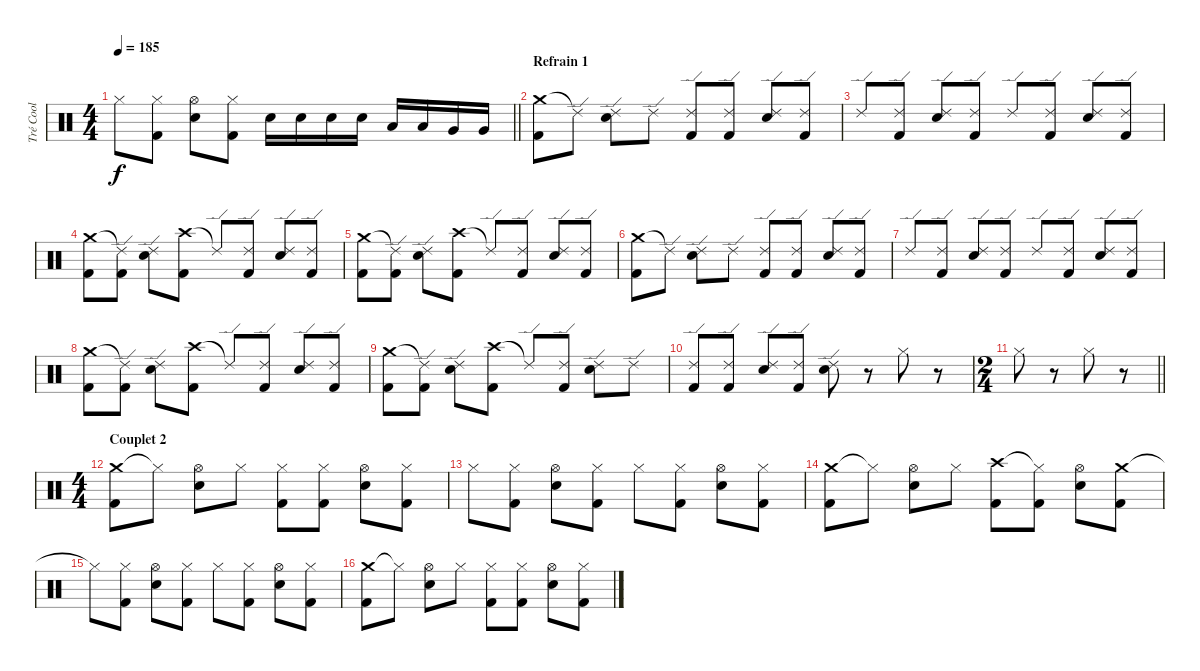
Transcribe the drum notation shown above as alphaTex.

\track ("Tré Cool" "Tré Cool") {instrument percussion}
\staff {score}
\articulation defaults
\ts (4 4)
\tempo 185
\clef neutral
\barLineRight lightlight
\ks c "Hi-Hat (closed)"{t}.8{dy f}
("Hi-Hat (closed)" "Kick (hit) 2").8 ("Hi-Hat (open)" "Electric Snare (hit)").8 ("Hi-Hat (closed)" "Kick (hit) 2").8 "Electric Snare (hit)".16 "Electric Snare (hit)".16 "Electric Snare (hit)".16 "Electric Snare (hit)".16 "Low Tom (hit)".16 "Low Tom (hit)".16 "Very Low Tom (hit)".16 "Very Low Tom (hit)".16 |
\section ("" "Refrain 1")
("Crash medium (hit)" "Kick (hit) 2").8 "Ride (edge) 2"{t}.8 ("Ride (edge) 2" "Electric Snare (hit)").8 "Ride (edge) 2".8 ("Ride (edge) 2" "Kick (hit) 2").8 ("Ride (edge) 2" "Kick (hit) 2").8 ("Ride (edge) 2" "Electric Snare (hit)").8 ("Ride (edge) 2" "Kick (hit) 2").8 |
"Ride (edge) 2".8 ("Ride (edge) 2" "Kick (hit) 2").8 ("Ride (edge) 2" "Electric Snare (hit)").8 ("Ride (edge) 2" "Kick (hit) 2").8 "Ride (edge) 2".8 ("Ride (edge) 2" "Kick (hit) 2").8 ("Ride (edge) 2" "Electric Snare (hit)").8 ("Ride (edge) 2" "Kick (hit) 2").8 |
("Crash medium (hit)" "Kick (hit) 2").8 ("Ride (edge) 2"{t} "Kick (hit) 2").8 ("Ride (edge) 2" "Electric Snare (hit)").8 ("Crash high (hit)" "Kick (hit) 2").8 "Ride (edge) 2"{t}.8 ("Ride (edge) 2" "Kick (hit) 2").8 ("Ride (edge) 2" "Electric Snare (hit)").8 ("Ride (edge) 2" "Kick (hit) 2").8 |
("Crash medium (hit)" "Kick (hit) 2").8 ("Ride (edge) 2"{t} "Kick (hit) 2").8 ("Ride (edge) 2" "Electric Snare (hit)").8 ("Crash high (hit)" "Kick (hit) 2").8 "Ride (edge) 2"{t}.8 ("Ride (edge) 2" "Kick (hit) 2").8 ("Ride (edge) 2" "Electric Snare (hit)").8 ("Ride (edge) 2" "Kick (hit) 2").8 |
("Crash medium (hit)" "Kick (hit) 2").8 "Ride (edge) 2"{t}.8 ("Ride (edge) 2" "Electric Snare (hit)").8 "Ride (edge) 2".8 ("Ride (edge) 2" "Kick (hit) 2").8 ("Ride (edge) 2" "Kick (hit) 2").8 ("Ride (edge) 2" "Electric Snare (hit)").8 ("Ride (edge) 2" "Kick (hit) 2").8 |
"Ride (edge) 2".8 ("Ride (edge) 2" "Kick (hit) 2").8 ("Ride (edge) 2" "Electric Snare (hit)").8 ("Ride (edge) 2" "Kick (hit) 2").8 "Ride (edge) 2".8 ("Ride (edge) 2" "Kick (hit) 2").8 ("Ride (edge) 2" "Electric Snare (hit)").8 ("Ride (edge) 2" "Kick (hit) 2").8 |
("Crash medium (hit)" "Kick (hit) 2").8 ("Ride (edge) 2"{t} "Kick (hit) 2").8 ("Ride (edge) 2" "Electric Snare (hit)").8 ("Crash high (hit)" "Kick (hit) 2").8 "Ride (edge) 2"{t}.8 ("Ride (edge) 2" "Kick (hit) 2").8 ("Ride (edge) 2" "Electric Snare (hit)").8 ("Ride (edge) 2" "Kick (hit) 2").8 |
("Crash medium (hit)" "Kick (hit) 2").8 ("Ride (edge) 2"{t} "Kick (hit) 2").8 ("Ride (edge) 2" "Electric Snare (hit)").8 ("Crash high (hit)" "Kick (hit) 2").8 "Ride (edge) 2"{t}.8 ("Ride (edge) 2" "Kick (hit) 2").8 ("Ride (edge) 2" "Electric Snare (hit)").8 "Ride (edge) 2".8 |
("Ride (edge) 2" "Kick (hit) 2").8 ("Ride (edge) 2" "Kick (hit) 2").8 ("Ride (edge) 2" "Electric Snare (hit)").8 ("Ride (edge) 2" "Kick (hit) 2").8 ("Ride (edge) 2" "Electric Snare (hit)").8 r.8 "Hi-Hat (closed)".8 r.8 |
\ts (2 4)
\barLineRight lightlight "Hi-Hat (closed)".8
r.8 "Hi-Hat (closed)".8 r.8 |
\ts (4 4)
\section ("" "Couplet 2")
("Crash medium (hit)" "Kick (hit) 2").8 "Hi-Hat (closed)"{t}.8 ("Hi-Hat (open)" "Electric Snare (hit)").8 "Hi-Hat (closed)".8 ("Hi-Hat (closed)" "Kick (hit) 2").8 ("Hi-Hat (closed)" "Kick (hit) 2").8 ("Hi-Hat (open)" "Electric Snare (hit)").8 ("Hi-Hat (closed)" "Kick (hit) 2").8 |
"Hi-Hat (closed)".8 ("Hi-Hat (closed)" "Kick (hit) 2").8 ("Hi-Hat (open)" "Electric Snare (hit)").8 ("Hi-Hat (closed)" "Kick (hit) 2").8 "Hi-Hat (closed)".8 ("Hi-Hat (closed)" "Kick (hit) 2").8 ("Hi-Hat (open)" "Electric Snare (hit)").8 ("Hi-Hat (closed)" "Kick (hit) 2").8 |
("Crash medium (hit)" "Kick (hit) 2").8 "Hi-Hat (closed)"{t}.8 ("Hi-Hat (open)" "Electric Snare (hit)").8 "Hi-Hat (closed)".8 ("Crash high (hit)" "Kick (hit) 2").8 ("Hi-Hat (closed)"{t} "Kick (hit) 2").8 ("Hi-Hat (open)" "Electric Snare (hit)").8 ("Crash medium (hit)" "Kick (hit) 2").8 |
"Hi-Hat (closed)"{t}.8 ("Hi-Hat (closed)" "Kick (hit) 2").8 ("Hi-Hat (open)" "Electric Snare (hit)").8 ("Hi-Hat (closed)" "Kick (hit) 2").8 "Hi-Hat (closed)".8 ("Hi-Hat (closed)" "Kick (hit) 2").8 ("Hi-Hat (open)" "Electric Snare (hit)").8 ("Hi-Hat (closed)" "Kick (hit) 2").8 |
("Crash medium (hit)" "Kick (hit) 2").8 "Hi-Hat (closed)"{t}.8 ("Hi-Hat (open)" "Electric Snare (hit)").8 "Hi-Hat (closed)".8 ("Hi-Hat (closed)" "Kick (hit) 2").8 ("Hi-Hat (closed)" "Kick (hit) 2").8 ("Hi-Hat (open)" "Electric Snare (hit)").8 ("Hi-Hat (closed)" "Kick (hit) 2").8
